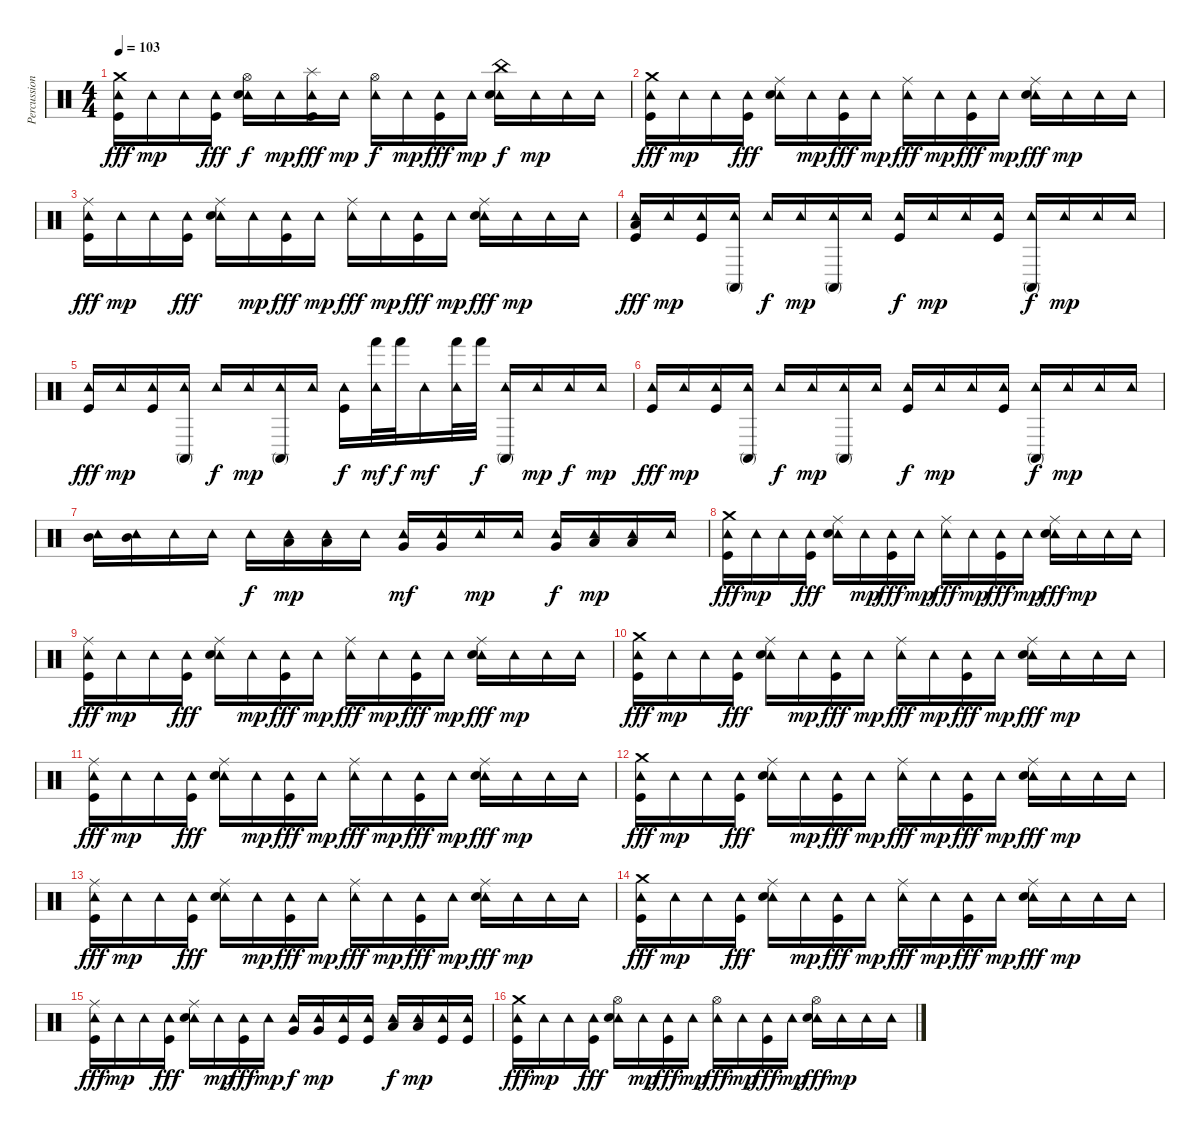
\track ("Percussion" "Percussion") {instrument percussion}
\staff {score}
\articulation defaults
\ts (4 4)
\tempo 103
\clef neutral
\ks c
("Tambourine (hit)" "Kick (hit)" "Crash medium (hit)").16{dy fff} "Tambourine (hit)".16{dy mp} "Tambourine (hit)".16 ("Tambourine (hit)" "Kick (hit)").16{dy fff} ("Tambourine (hit)" "Electric Snare (hit)" "Hi-Hat (open)").16{dy f} "Tambourine (hit)".16{dy mp} ("Tambourine (hit)" "Kick (hit)" "Splash (hit)").16{dy fff} "Tambourine (hit)".16{dy mp} ("Tambourine (hit)" "Hi-Hat (open)").16{dy f} "Tambourine (hit)".16{dy mp} ("Tambourine (hit)" "Kick (hit)").16{dy fff} "Tambourine (hit)".16{dy mp} ("Tambourine (hit)" "Electric Snare (hit)" "China (hit)").16{dy f} "Tambourine (hit)".16{dy mp} "Tambourine (hit)".16 "Tambourine (hit)".16 |
("Tambourine (hit)" "Kick (hit)" "Crash medium (hit)").16{dy fff} "Tambourine (hit)".16{dy mp} "Tambourine (hit)".16 ("Tambourine (hit)" "Kick (hit)").16{dy fff} ("Tambourine (hit)" "Electric Snare (hit)" "Ride (middle)").16 "Tambourine (hit)".16{dy mp} ("Tambourine (hit)" "Kick (hit)").16{dy fff} "Tambourine (hit)".16{dy mp} ("Tambourine (hit)" "Ride (middle)").16{dy fff} "Tambourine (hit)".16{dy mp} ("Tambourine (hit)" "Kick (hit)").16{dy fff} "Tambourine (hit)".16{dy mp} ("Tambourine (hit)" "Electric Snare (hit)" "Ride (middle)").16{dy fff} "Tambourine (hit)".16{dy mp} "Tambourine (hit)".16 "Tambourine (hit)".16 |
("Tambourine (hit)" "Kick (hit)" "Ride (middle)").16{dy fff} "Tambourine (hit)".16{dy mp} "Tambourine (hit)".16 ("Tambourine (hit)" "Kick (hit)").16{dy fff} ("Tambourine (hit)" "Electric Snare (hit)" "Ride (middle)").16 "Tambourine (hit)".16{dy mp} ("Tambourine (hit)" "Kick (hit)").16{dy fff} "Tambourine (hit)".16{dy mp} ("Tambourine (hit)" "Ride (middle)").16{dy fff} "Tambourine (hit)".16{dy mp} ("Tambourine (hit)" "Kick (hit)").16{dy fff} "Tambourine (hit)".16{dy mp} ("Tambourine (hit)" "Electric Snare (hit)" "Ride (middle)").16{dy fff} "Tambourine (hit)".16{dy mp} "Tambourine (hit)".16 "Tambourine (hit)".16 |
("Tambourine (hit)" "Kick (hit)" "Low Floor Tom (hit)").16{dy fff} "Tambourine (hit)".16{dy mp} ("Tambourine (hit)" "Kick (hit)").16 ("Tambourine (hit)" "Conga high (mute)").16 "Tambourine (hit)".16{dy f} "Tambourine (hit)".16{dy mp} ("Tambourine (hit)" "Conga high (mute)").16 "Tambourine (hit)".16 ("Tambourine (hit)" "Kick (hit)").16{dy f} "Tambourine (hit)".16{dy mp} "Tambourine (hit)".16 ("Tambourine (hit)" "Kick (hit)").16 ("Tambourine (hit)" "Conga high (mute)").16{dy f} "Tambourine (hit)".16{dy mp} "Tambourine (hit)".16 "Tambourine (hit)".16 |
("Tambourine (hit)" "Kick (hit)").16{dy fff} "Tambourine (hit)".16{dy mp} ("Tambourine (hit)" "Kick (hit)").16 ("Tambourine (hit)" "Conga high (mute)").16 "Tambourine (hit)".16{dy f} "Tambourine (hit)".16{dy mp} ("Tambourine (hit)" "Conga high (mute)").16 "Tambourine (hit)".16 ("Tambourine (hit)" "Kick (hit)").16{dy f} ("Tambourine (hit)" "Hand (hit)").32{dy mf} "Hand (hit)".32{dy f} "Tambourine (hit)".16{dy mf} ("Tambourine (hit)" "Hand (hit)").32 "Hand (hit)".32{dy f} ("Tambourine (hit)" "Conga high (mute)").16 "Tambourine (hit)".16{dy mp} "Tambourine (hit)".16{dy f} "Tambourine (hit)".16{dy mp} |
("Tambourine (hit)" "Kick (hit)").16{dy fff} "Tambourine (hit)".16{dy mp} ("Tambourine (hit)" "Kick (hit)").16 ("Tambourine (hit)" "Conga high (mute)").16 "Tambourine (hit)".16{dy f} "Tambourine (hit)".16{dy mp} ("Tambourine (hit)" "Conga high (mute)").16 "Tambourine (hit)".16 ("Tambourine (hit)" "Kick (hit)").16{dy f} "Tambourine (hit)".16{dy mp} "Tambourine (hit)".16 ("Tambourine (hit)" "Kick (hit)").16 ("Tambourine (hit)" "Conga high (mute)").16{dy f} "Tambourine (hit)".16{dy mp} "Tambourine (hit)".16 "Tambourine (hit)".16 |
("Tambourine (hit)" "Mid Tom (hit)").16 ("Tambourine (hit)" "Mid Tom (hit)").16 "Tambourine (hit)".16 "Tambourine (hit)".16 "Tambourine (hit)".16{dy f} ("Tambourine (hit)" "Low Tom (hit)").16{dy mp} ("Tambourine (hit)" "Low Tom (hit)").16 "Tambourine (hit)".16 ("Tambourine (hit)" "Very Low Tom (hit)").16{dy mf} ("Tambourine (hit)" "Very Low Tom (hit)").16 "Tambourine (hit)".16{dy mp} "Tambourine (hit)".16 ("Tambourine (hit)" "Very Low Tom (hit)").16{dy f} ("Tambourine (hit)" "Low Floor Tom (hit)").16{dy mp} ("Tambourine (hit)" "Low Floor Tom (hit)").16 "Tambourine (hit)".16 |
("Tambourine (hit)" "Kick (hit)" "Crash medium (hit)").16{dy fff} "Tambourine (hit)".16{dy mp} "Tambourine (hit)".16 ("Tambourine (hit)" "Kick (hit)").16{dy fff} ("Tambourine (hit)" "Electric Snare (hit)" "Ride (middle)").16 "Tambourine (hit)".16{dy mp} ("Tambourine (hit)" "Kick (hit)").16{dy fff} "Tambourine (hit)".16{dy mp} ("Tambourine (hit)" "Ride (middle)").16{dy fff} "Tambourine (hit)".16{dy mp} ("Tambourine (hit)" "Kick (hit)").16{dy fff} "Tambourine (hit)".16{dy mp} ("Tambourine (hit)" "Electric Snare (hit)" "Ride (middle)").16{dy fff} "Tambourine (hit)".16{dy mp} "Tambourine (hit)".16 "Tambourine (hit)".16 |
("Tambourine (hit)" "Kick (hit)" "Ride (middle)").16{dy fff} "Tambourine (hit)".16{dy mp} "Tambourine (hit)".16 ("Tambourine (hit)" "Kick (hit)").16{dy fff} ("Tambourine (hit)" "Electric Snare (hit)" "Ride (middle)").16 "Tambourine (hit)".16{dy mp} ("Tambourine (hit)" "Kick (hit)").16{dy fff} "Tambourine (hit)".16{dy mp} ("Tambourine (hit)" "Ride (middle)").16{dy fff} "Tambourine (hit)".16{dy mp} ("Tambourine (hit)" "Kick (hit)").16{dy fff} "Tambourine (hit)".16{dy mp} ("Tambourine (hit)" "Electric Snare (hit)" "Ride (middle)").16{dy fff} "Tambourine (hit)".16{dy mp} "Tambourine (hit)".16 "Tambourine (hit)".16 |
("Tambourine (hit)" "Kick (hit)" "Crash medium (hit)").16{dy fff} "Tambourine (hit)".16{dy mp} "Tambourine (hit)".16 ("Tambourine (hit)" "Kick (hit)").16{dy fff} ("Tambourine (hit)" "Electric Snare (hit)" "Ride (middle)").16 "Tambourine (hit)".16{dy mp} ("Tambourine (hit)" "Kick (hit)").16{dy fff} "Tambourine (hit)".16{dy mp} ("Tambourine (hit)" "Ride (middle)").16{dy fff} "Tambourine (hit)".16{dy mp} ("Tambourine (hit)" "Kick (hit)").16{dy fff} "Tambourine (hit)".16{dy mp} ("Tambourine (hit)" "Electric Snare (hit)" "Ride (middle)").16{dy fff} "Tambourine (hit)".16{dy mp} "Tambourine (hit)".16 "Tambourine (hit)".16 |
("Tambourine (hit)" "Kick (hit)" "Ride (middle)").16{dy fff} "Tambourine (hit)".16{dy mp} "Tambourine (hit)".16 ("Tambourine (hit)" "Kick (hit)").16{dy fff} ("Tambourine (hit)" "Electric Snare (hit)" "Ride (middle)").16 "Tambourine (hit)".16{dy mp} ("Tambourine (hit)" "Kick (hit)").16{dy fff} "Tambourine (hit)".16{dy mp} ("Tambourine (hit)" "Ride (middle)").16{dy fff} "Tambourine (hit)".16{dy mp} ("Tambourine (hit)" "Kick (hit)").16{dy fff} "Tambourine (hit)".16{dy mp} ("Tambourine (hit)" "Electric Snare (hit)" "Ride (middle)").16{dy fff} "Tambourine (hit)".16{dy mp} "Tambourine (hit)".16 "Tambourine (hit)".16 |
("Tambourine (hit)" "Kick (hit)" "Crash medium (hit)").16{dy fff} "Tambourine (hit)".16{dy mp} "Tambourine (hit)".16 ("Tambourine (hit)" "Kick (hit)").16{dy fff} ("Tambourine (hit)" "Electric Snare (hit)" "Ride (middle)").16 "Tambourine (hit)".16{dy mp} ("Tambourine (hit)" "Kick (hit)").16{dy fff} "Tambourine (hit)".16{dy mp} ("Tambourine (hit)" "Ride (middle)").16{dy fff} "Tambourine (hit)".16{dy mp} ("Tambourine (hit)" "Kick (hit)").16{dy fff} "Tambourine (hit)".16{dy mp} ("Tambourine (hit)" "Electric Snare (hit)" "Ride (middle)").16{dy fff} "Tambourine (hit)".16{dy mp} "Tambourine (hit)".16 "Tambourine (hit)".16 |
("Tambourine (hit)" "Kick (hit)" "Ride (middle)").16{dy fff} "Tambourine (hit)".16{dy mp} "Tambourine (hit)".16 ("Tambourine (hit)" "Kick (hit)").16{dy fff} ("Tambourine (hit)" "Electric Snare (hit)" "Ride (middle)").16 "Tambourine (hit)".16{dy mp} ("Tambourine (hit)" "Kick (hit)").16{dy fff} "Tambourine (hit)".16{dy mp} ("Tambourine (hit)" "Ride (middle)").16{dy fff} "Tambourine (hit)".16{dy mp} ("Tambourine (hit)" "Kick (hit)").16{dy fff} "Tambourine (hit)".16{dy mp} ("Tambourine (hit)" "Electric Snare (hit)" "Ride (middle)").16{dy fff} "Tambourine (hit)".16{dy mp} "Tambourine (hit)".16 "Tambourine (hit)".16 |
("Tambourine (hit)" "Kick (hit)" "Crash medium (hit)").16{dy fff} "Tambourine (hit)".16{dy mp} "Tambourine (hit)".16 ("Tambourine (hit)" "Kick (hit)").16{dy fff} ("Tambourine (hit)" "Electric Snare (hit)" "Ride (middle)").16 "Tambourine (hit)".16{dy mp} ("Tambourine (hit)" "Kick (hit)").16{dy fff} "Tambourine (hit)".16{dy mp} ("Tambourine (hit)" "Ride (middle)").16{dy fff} "Tambourine (hit)".16{dy mp} ("Tambourine (hit)" "Kick (hit)").16{dy fff} "Tambourine (hit)".16{dy mp} ("Tambourine (hit)" "Electric Snare (hit)" "Ride (middle)").16{dy fff} "Tambourine (hit)".16{dy mp} "Tambourine (hit)".16 "Tambourine (hit)".16 |
("Tambourine (hit)" "Kick (hit)" "Ride (middle)").16{dy fff} "Tambourine (hit)".16{dy mp} "Tambourine (hit)".16 ("Tambourine (hit)" "Kick (hit)").16{dy fff} ("Tambourine (hit)" "Electric Snare (hit)" "Ride (middle)").16 "Tambourine (hit)".16{dy mp} ("Tambourine (hit)" "Kick (hit)").16{dy fff} "Tambourine (hit)".16{dy mp} ("Tambourine (hit)" "Very Low Tom (hit)").16{dy f} ("Tambourine (hit)" "Very Low Tom (hit)").16{dy mp} ("Tambourine (hit)" "Kick (hit)").16 ("Tambourine (hit)" "Kick (hit)").16 ("Tambourine (hit)" "Low Floor Tom (hit)").16{dy f} ("Tambourine (hit)" "Low Floor Tom (hit)").16{dy mp} ("Tambourine (hit)" "Kick (hit)").16 ("Tambourine (hit)" "Kick (hit)").16 |
("Tambourine (hit)" "Kick (hit)" "Crash medium (hit)").16{dy fff} "Tambourine (hit)".16{dy mp} "Tambourine (hit)".16 ("Tambourine (hit)" "Kick (hit)").16{dy fff} ("Tambourine (hit)" "Electric Snare (hit)" "Hi-Hat (open)").16 "Tambourine (hit)".16{dy mp} ("Tambourine (hit)" "Kick (hit)").16{dy fff} "Tambourine (hit)".16{dy mp} ("Tambourine (hit)" "Hi-Hat (open)").16{dy fff} "Tambourine (hit)".16{dy mp} ("Tambourine (hit)" "Kick (hit)").16{dy fff} "Tambourine (hit)".16{dy mp} ("Tambourine (hit)" "Electric Snare (hit)" "Hi-Hat (open)").16{dy fff} "Tambourine (hit)".16{dy mp} "Tambourine (hit)".16 "Tambourine (hit)".16
